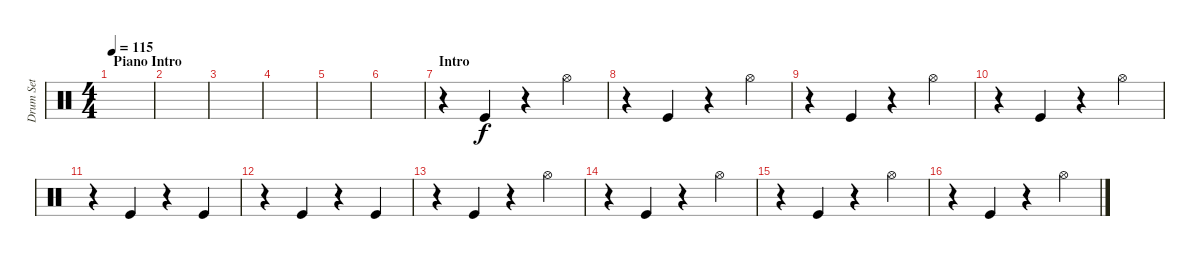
\track ("Drum Set" "Drum Set") {instrument percussion}
\staff {score}
\articulation defaults
\ts (4 4)
\section ("" "Piano Intro")
\tempo 115
\clef neutral
\ks c
|
|
|
|
|
|
\section ("" "Intro")
r.4 "Kick (hit)".4 r.4 "Hi-Hat (open)".4 |
r.4 "Kick (hit)".4 r.4 "Hi-Hat (open)".4 |
r.4 "Kick (hit)".4 r.4 "Hi-Hat (open)".4 |
r.4 "Kick (hit)".4 r.4 "Hi-Hat (open)".4 |
r.4 "Kick (hit)".4 r.4 "Kick (hit)".4 |
r.4 "Kick (hit)".4 r.4 "Kick (hit)".4 |
r.4 "Kick (hit)".4 r.4 "Hi-Hat (open)".4 |
r.4 "Kick (hit)".4 r.4 "Hi-Hat (open)".4 |
r.4 "Kick (hit)".4 r.4 "Hi-Hat (open)".4 |
r.4 "Kick (hit)".4 r.4 "Hi-Hat (open)".4
